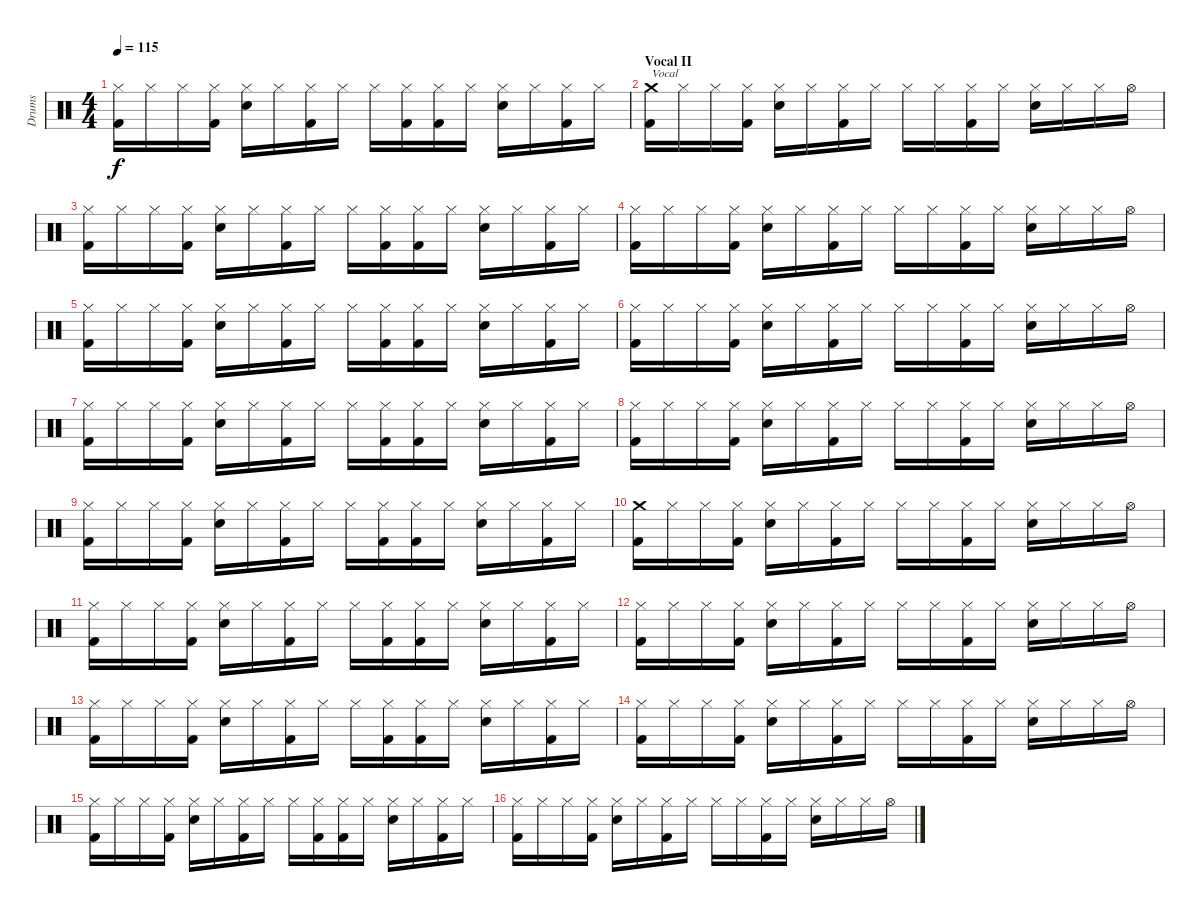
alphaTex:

\track ("Drums" "Drums") {instrument percussion}
\staff {score}
\articulation defaults
\ts (4 4)
\tempo 115
\clef neutral
\ks c
("Hi-Hat (closed)" "Kick (hit) 2").16{dy f} "Hi-Hat (closed)".16 "Hi-Hat (closed)".16 ("Hi-Hat (closed)" "Kick (hit) 2").16 ("Hi-Hat (closed)" "Electric Snare (hit)").16 "Hi-Hat (closed)".16 ("Hi-Hat (closed)" "Kick (hit) 2").16 "Hi-Hat (closed)".16 "Hi-Hat (closed)".16 ("Hi-Hat (closed)" "Kick (hit) 2").16 ("Hi-Hat (closed)" "Kick (hit) 2").16 "Hi-Hat (closed)".16 ("Hi-Hat (closed)" "Electric Snare (hit)").16 "Hi-Hat (closed)".16 ("Hi-Hat (closed)" "Kick (hit) 2").16 "Hi-Hat (closed)".16 |
\section ("" "Vocal II")
("Crash medium (hit)" "Kick (hit) 2").16{txt "Vocal"} "Hi-Hat (closed)".16 "Hi-Hat (closed)".16 ("Hi-Hat (closed)" "Kick (hit) 2").16 ("Hi-Hat (closed)" "Electric Snare (hit)").16 "Hi-Hat (closed)".16 ("Hi-Hat (closed)" "Kick (hit) 2").16 "Hi-Hat (closed)".16 "Hi-Hat (closed)".16 "Hi-Hat (closed)".16 ("Hi-Hat (closed)" "Kick (hit) 2").16 "Hi-Hat (closed)".16 ("Hi-Hat (closed)" "Electric Snare (hit)").16 "Hi-Hat (closed)".16 "Hi-Hat (closed)".16 "Hi-Hat (open)".16 |
("Hi-Hat (closed)" "Kick (hit) 2").16 "Hi-Hat (closed)".16 "Hi-Hat (closed)".16 ("Hi-Hat (closed)" "Kick (hit) 2").16 ("Hi-Hat (closed)" "Electric Snare (hit)").16 "Hi-Hat (closed)".16 ("Hi-Hat (closed)" "Kick (hit) 2").16 "Hi-Hat (closed)".16 "Hi-Hat (closed)".16 ("Hi-Hat (closed)" "Kick (hit) 2").16 ("Hi-Hat (closed)" "Kick (hit) 2").16 "Hi-Hat (closed)".16 ("Hi-Hat (closed)" "Electric Snare (hit)").16 "Hi-Hat (closed)".16 ("Hi-Hat (closed)" "Kick (hit) 2").16 "Hi-Hat (closed)".16 |
("Hi-Hat (closed)" "Kick (hit) 2").16 "Hi-Hat (closed)".16 "Hi-Hat (closed)".16 ("Hi-Hat (closed)" "Kick (hit) 2").16 ("Hi-Hat (closed)" "Electric Snare (hit)").16 "Hi-Hat (closed)".16 ("Hi-Hat (closed)" "Kick (hit) 2").16 "Hi-Hat (closed)".16 "Hi-Hat (closed)".16 "Hi-Hat (closed)".16 ("Hi-Hat (closed)" "Kick (hit) 2").16 "Hi-Hat (closed)".16 ("Hi-Hat (closed)" "Electric Snare (hit)").16 "Hi-Hat (closed)".16 "Hi-Hat (closed)".16 "Hi-Hat (open)".16 |
("Hi-Hat (closed)" "Kick (hit) 2").16 "Hi-Hat (closed)".16 "Hi-Hat (closed)".16 ("Hi-Hat (closed)" "Kick (hit) 2").16 ("Hi-Hat (closed)" "Electric Snare (hit)").16 "Hi-Hat (closed)".16 ("Hi-Hat (closed)" "Kick (hit) 2").16 "Hi-Hat (closed)".16 "Hi-Hat (closed)".16 ("Hi-Hat (closed)" "Kick (hit) 2").16 ("Hi-Hat (closed)" "Kick (hit) 2").16 "Hi-Hat (closed)".16 ("Hi-Hat (closed)" "Electric Snare (hit)").16 "Hi-Hat (closed)".16 ("Hi-Hat (closed)" "Kick (hit) 2").16 "Hi-Hat (closed)".16 |
("Hi-Hat (closed)" "Kick (hit) 2").16 "Hi-Hat (closed)".16 "Hi-Hat (closed)".16 ("Hi-Hat (closed)" "Kick (hit) 2").16 ("Hi-Hat (closed)" "Electric Snare (hit)").16 "Hi-Hat (closed)".16 ("Hi-Hat (closed)" "Kick (hit) 2").16 "Hi-Hat (closed)".16 "Hi-Hat (closed)".16 "Hi-Hat (closed)".16 ("Hi-Hat (closed)" "Kick (hit) 2").16 "Hi-Hat (closed)".16 ("Hi-Hat (closed)" "Electric Snare (hit)").16 "Hi-Hat (closed)".16 "Hi-Hat (closed)".16 "Hi-Hat (open)".16 |
("Hi-Hat (closed)" "Kick (hit) 2").16 "Hi-Hat (closed)".16 "Hi-Hat (closed)".16 ("Hi-Hat (closed)" "Kick (hit) 2").16 ("Hi-Hat (closed)" "Electric Snare (hit)").16 "Hi-Hat (closed)".16 ("Hi-Hat (closed)" "Kick (hit) 2").16 "Hi-Hat (closed)".16 "Hi-Hat (closed)".16 ("Hi-Hat (closed)" "Kick (hit) 2").16 ("Hi-Hat (closed)" "Kick (hit) 2").16 "Hi-Hat (closed)".16 ("Hi-Hat (closed)" "Electric Snare (hit)").16 "Hi-Hat (closed)".16 ("Hi-Hat (closed)" "Kick (hit) 2").16 "Hi-Hat (closed)".16 |
("Hi-Hat (closed)" "Kick (hit) 2").16 "Hi-Hat (closed)".16 "Hi-Hat (closed)".16 ("Hi-Hat (closed)" "Kick (hit) 2").16 ("Hi-Hat (closed)" "Electric Snare (hit)").16 "Hi-Hat (closed)".16 ("Hi-Hat (closed)" "Kick (hit) 2").16 "Hi-Hat (closed)".16 "Hi-Hat (closed)".16 "Hi-Hat (closed)".16 ("Hi-Hat (closed)" "Kick (hit) 2").16 "Hi-Hat (closed)".16 ("Hi-Hat (closed)" "Electric Snare (hit)").16 "Hi-Hat (closed)".16 "Hi-Hat (closed)".16 "Hi-Hat (open)".16 |
("Hi-Hat (closed)" "Kick (hit) 2").16 "Hi-Hat (closed)".16 "Hi-Hat (closed)".16 ("Hi-Hat (closed)" "Kick (hit) 2").16 ("Hi-Hat (closed)" "Electric Snare (hit)").16 "Hi-Hat (closed)".16 ("Hi-Hat (closed)" "Kick (hit) 2").16 "Hi-Hat (closed)".16 "Hi-Hat (closed)".16 ("Hi-Hat (closed)" "Kick (hit) 2").16 ("Hi-Hat (closed)" "Kick (hit) 2").16 "Hi-Hat (closed)".16 ("Hi-Hat (closed)" "Electric Snare (hit)").16 "Hi-Hat (closed)".16 ("Hi-Hat (closed)" "Kick (hit) 2").16 "Hi-Hat (closed)".16 |
\section ("" "")
("Crash medium (hit)" "Kick (hit) 2").16 "Hi-Hat (closed)".16 "Hi-Hat (closed)".16 ("Hi-Hat (closed)" "Kick (hit) 2").16 ("Hi-Hat (closed)" "Electric Snare (hit)").16 "Hi-Hat (closed)".16 ("Hi-Hat (closed)" "Kick (hit) 2").16 "Hi-Hat (closed)".16 "Hi-Hat (closed)".16 "Hi-Hat (closed)".16 ("Hi-Hat (closed)" "Kick (hit) 2").16 "Hi-Hat (closed)".16 ("Hi-Hat (closed)" "Electric Snare (hit)").16 "Hi-Hat (closed)".16 "Hi-Hat (closed)".16 "Hi-Hat (open)".16 |
\section ("" "")
("Hi-Hat (closed)" "Kick (hit) 2").16 "Hi-Hat (closed)".16 "Hi-Hat (closed)".16 ("Hi-Hat (closed)" "Kick (hit) 2").16 ("Hi-Hat (closed)" "Electric Snare (hit)").16 "Hi-Hat (closed)".16 ("Hi-Hat (closed)" "Kick (hit) 2").16 "Hi-Hat (closed)".16 "Hi-Hat (closed)".16 ("Hi-Hat (closed)" "Kick (hit) 2").16 ("Hi-Hat (closed)" "Kick (hit) 2").16 "Hi-Hat (closed)".16 ("Hi-Hat (closed)" "Electric Snare (hit)").16 "Hi-Hat (closed)".16 ("Hi-Hat (closed)" "Kick (hit) 2").16 "Hi-Hat (closed)".16 |
("Hi-Hat (closed)" "Kick (hit) 2").16 "Hi-Hat (closed)".16 "Hi-Hat (closed)".16 ("Hi-Hat (closed)" "Kick (hit) 2").16 ("Hi-Hat (closed)" "Electric Snare (hit)").16 "Hi-Hat (closed)".16 ("Hi-Hat (closed)" "Kick (hit) 2").16 "Hi-Hat (closed)".16 "Hi-Hat (closed)".16 "Hi-Hat (closed)".16 ("Hi-Hat (closed)" "Kick (hit) 2").16 "Hi-Hat (closed)".16 ("Hi-Hat (closed)" "Electric Snare (hit)").16 "Hi-Hat (closed)".16 "Hi-Hat (closed)".16 "Hi-Hat (open)".16 |
("Hi-Hat (closed)" "Kick (hit) 2").16 "Hi-Hat (closed)".16 "Hi-Hat (closed)".16 ("Hi-Hat (closed)" "Kick (hit) 2").16 ("Hi-Hat (closed)" "Electric Snare (hit)").16 "Hi-Hat (closed)".16 ("Hi-Hat (closed)" "Kick (hit) 2").16 "Hi-Hat (closed)".16 "Hi-Hat (closed)".16 ("Hi-Hat (closed)" "Kick (hit) 2").16 ("Hi-Hat (closed)" "Kick (hit) 2").16 "Hi-Hat (closed)".16 ("Hi-Hat (closed)" "Electric Snare (hit)").16 "Hi-Hat (closed)".16 ("Hi-Hat (closed)" "Kick (hit) 2").16 "Hi-Hat (closed)".16 |
("Hi-Hat (closed)" "Kick (hit) 2").16 "Hi-Hat (closed)".16 "Hi-Hat (closed)".16 ("Hi-Hat (closed)" "Kick (hit) 2").16 ("Hi-Hat (closed)" "Electric Snare (hit)").16 "Hi-Hat (closed)".16 ("Hi-Hat (closed)" "Kick (hit) 2").16 "Hi-Hat (closed)".16 "Hi-Hat (closed)".16 "Hi-Hat (closed)".16 ("Hi-Hat (closed)" "Kick (hit) 2").16 "Hi-Hat (closed)".16 ("Hi-Hat (closed)" "Electric Snare (hit)").16 "Hi-Hat (closed)".16 "Hi-Hat (closed)".16 "Hi-Hat (open)".16 |
("Hi-Hat (closed)" "Kick (hit) 2").16 "Hi-Hat (closed)".16 "Hi-Hat (closed)".16 ("Hi-Hat (closed)" "Kick (hit) 2").16 ("Hi-Hat (closed)" "Electric Snare (hit)").16 "Hi-Hat (closed)".16 ("Hi-Hat (closed)" "Kick (hit) 2").16 "Hi-Hat (closed)".16 "Hi-Hat (closed)".16 ("Hi-Hat (closed)" "Kick (hit) 2").16 ("Hi-Hat (closed)" "Kick (hit) 2").16 "Hi-Hat (closed)".16 ("Hi-Hat (closed)" "Electric Snare (hit)").16 "Hi-Hat (closed)".16 ("Hi-Hat (closed)" "Kick (hit) 2").16 "Hi-Hat (closed)".16 |
("Hi-Hat (closed)" "Kick (hit) 2").16 "Hi-Hat (closed)".16 "Hi-Hat (closed)".16 ("Hi-Hat (closed)" "Kick (hit) 2").16 ("Hi-Hat (closed)" "Electric Snare (hit)").16 "Hi-Hat (closed)".16 ("Hi-Hat (closed)" "Kick (hit) 2").16 "Hi-Hat (closed)".16 "Hi-Hat (closed)".16 "Hi-Hat (closed)".16 ("Hi-Hat (closed)" "Kick (hit) 2").16 "Hi-Hat (closed)".16 ("Hi-Hat (closed)" "Electric Snare (hit)").16 "Hi-Hat (closed)".16 "Hi-Hat (closed)".16 "Hi-Hat (open)".16
